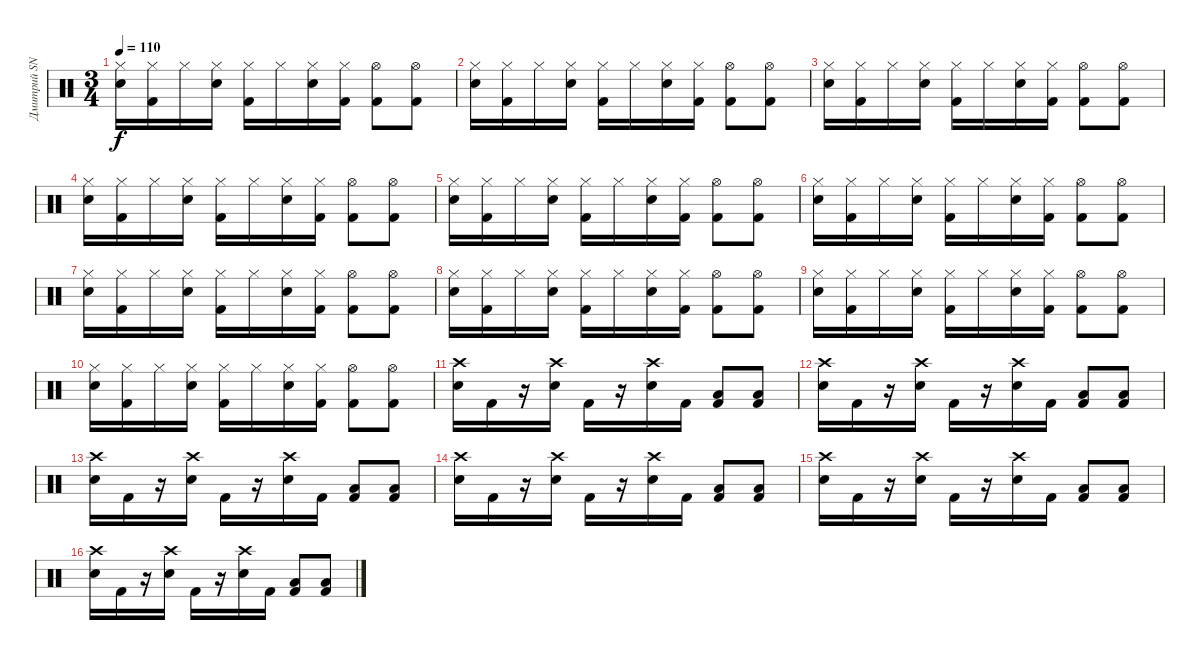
\track ("Дмитрий SNAKE" "Дмитрий SN") {instrument percussion}
\staff {score}
\articulation defaults
\ts (3 4)
\tempo 110
\clef neutral
\ks c
("Hi-Hat (closed)" "Snare (hit) 2").16{dy f} ("Hi-Hat (closed)" "Kick (hit) 2").16 "Hi-Hat (closed)".16 ("Hi-Hat (closed)" "Snare (hit) 2").16 ("Hi-Hat (closed)" "Kick (hit) 2").16 "Hi-Hat (closed)".16 ("Hi-Hat (closed)" "Snare (hit) 2").16 ("Hi-Hat (closed)" "Kick (hit) 2").16 ("Hi-Hat (open)" "Kick (hit) 2").8 ("Hi-Hat (open)" "Kick (hit) 2").8 |
("Hi-Hat (closed)" "Snare (hit) 2").16 ("Hi-Hat (closed)" "Kick (hit) 2").16 "Hi-Hat (closed)".16 ("Hi-Hat (closed)" "Snare (hit) 2").16 ("Hi-Hat (closed)" "Kick (hit) 2").16 "Hi-Hat (closed)".16 ("Hi-Hat (closed)" "Snare (hit) 2").16 ("Hi-Hat (closed)" "Kick (hit) 2").16 ("Hi-Hat (open)" "Kick (hit) 2").8 ("Hi-Hat (open)" "Kick (hit) 2").8 |
("Hi-Hat (closed)" "Snare (hit) 2").16 ("Hi-Hat (closed)" "Kick (hit) 2").16 "Hi-Hat (closed)".16 ("Hi-Hat (closed)" "Snare (hit) 2").16 ("Hi-Hat (closed)" "Kick (hit) 2").16 "Hi-Hat (closed)".16 ("Hi-Hat (closed)" "Snare (hit) 2").16 ("Hi-Hat (closed)" "Kick (hit) 2").16 ("Hi-Hat (open)" "Kick (hit) 2").8 ("Hi-Hat (open)" "Kick (hit) 2").8 |
("Hi-Hat (closed)" "Snare (hit) 2").16 ("Hi-Hat (closed)" "Kick (hit) 2").16 "Hi-Hat (closed)".16 ("Hi-Hat (closed)" "Snare (hit) 2").16 ("Hi-Hat (closed)" "Kick (hit) 2").16 "Hi-Hat (closed)".16 ("Hi-Hat (closed)" "Snare (hit) 2").16 ("Hi-Hat (closed)" "Kick (hit) 2").16 ("Hi-Hat (open)" "Kick (hit) 2").8 ("Hi-Hat (open)" "Kick (hit) 2").8 |
("Hi-Hat (closed)" "Snare (hit) 2").16 ("Hi-Hat (closed)" "Kick (hit) 2").16 "Hi-Hat (closed)".16 ("Hi-Hat (closed)" "Snare (hit) 2").16 ("Hi-Hat (closed)" "Kick (hit) 2").16 "Hi-Hat (closed)".16 ("Hi-Hat (closed)" "Snare (hit) 2").16 ("Hi-Hat (closed)" "Kick (hit) 2").16 ("Hi-Hat (open)" "Kick (hit) 2").8 ("Hi-Hat (open)" "Kick (hit) 2").8 |
("Hi-Hat (closed)" "Snare (hit) 2").16 ("Hi-Hat (closed)" "Kick (hit) 2").16 "Hi-Hat (closed)".16 ("Hi-Hat (closed)" "Snare (hit) 2").16 ("Hi-Hat (closed)" "Kick (hit) 2").16 "Hi-Hat (closed)".16 ("Hi-Hat (closed)" "Snare (hit) 2").16 ("Hi-Hat (closed)" "Kick (hit) 2").16 ("Hi-Hat (open)" "Kick (hit) 2").8 ("Hi-Hat (open)" "Kick (hit) 2").8 |
("Hi-Hat (closed)" "Snare (hit) 2").16 ("Hi-Hat (closed)" "Kick (hit) 2").16 "Hi-Hat (closed)".16 ("Hi-Hat (closed)" "Snare (hit) 2").16 ("Hi-Hat (closed)" "Kick (hit) 2").16 "Hi-Hat (closed)".16 ("Hi-Hat (closed)" "Snare (hit) 2").16 ("Hi-Hat (closed)" "Kick (hit) 2").16 ("Hi-Hat (open)" "Kick (hit) 2").8 ("Hi-Hat (open)" "Kick (hit) 2").8 |
("Hi-Hat (closed)" "Snare (hit) 2").16 ("Hi-Hat (closed)" "Kick (hit) 2").16 "Hi-Hat (closed)".16 ("Hi-Hat (closed)" "Snare (hit) 2").16 ("Hi-Hat (closed)" "Kick (hit) 2").16 "Hi-Hat (closed)".16 ("Hi-Hat (closed)" "Snare (hit) 2").16 ("Hi-Hat (closed)" "Kick (hit) 2").16 ("Hi-Hat (open)" "Kick (hit) 2").8 ("Hi-Hat (open)" "Kick (hit) 2").8 |
("Hi-Hat (closed)" "Snare (hit) 2").16 ("Hi-Hat (closed)" "Kick (hit) 2").16 "Hi-Hat (closed)".16 ("Hi-Hat (closed)" "Snare (hit) 2").16 ("Hi-Hat (closed)" "Kick (hit) 2").16 "Hi-Hat (closed)".16 ("Hi-Hat (closed)" "Snare (hit) 2").16 ("Hi-Hat (closed)" "Kick (hit) 2").16 ("Hi-Hat (open)" "Kick (hit) 2").8 ("Hi-Hat (open)" "Kick (hit) 2").8 |
("Hi-Hat (closed)" "Snare (hit) 2").16 ("Hi-Hat (closed)" "Kick (hit) 2").16 "Hi-Hat (closed)".16 ("Hi-Hat (closed)" "Snare (hit) 2").16 ("Hi-Hat (closed)" "Kick (hit) 2").16 "Hi-Hat (closed)".16 ("Hi-Hat (closed)" "Snare (hit) 2").16 ("Hi-Hat (closed)" "Kick (hit) 2").16 ("Hi-Hat (open)" "Kick (hit) 2").8 ("Hi-Hat (open)" "Kick (hit) 2").8 |
("Crash high (hit)" "Snare (hit) 2").16 "Kick (hit) 2".16 r.16 ("Crash high (hit)" "Snare (hit) 2").16 "Kick (hit) 2".16 r.16 ("Crash high (hit)" "Snare (hit) 2").16 "Kick (hit) 2".16 ("Low Tom (hit)" "Kick (hit) 2").8 ("Low Tom (hit)" "Kick (hit) 2").8 |
("Crash high (hit)" "Snare (hit) 2").16 "Kick (hit) 2".16 r.16 ("Crash high (hit)" "Snare (hit) 2").16 "Kick (hit) 2".16 r.16 ("Crash high (hit)" "Snare (hit) 2").16 "Kick (hit) 2".16 ("Low Tom (hit)" "Kick (hit) 2").8 ("Low Tom (hit)" "Kick (hit) 2").8 |
("Crash high (hit)" "Snare (hit) 2").16 "Kick (hit) 2".16 r.16 ("Crash high (hit)" "Snare (hit) 2").16 "Kick (hit) 2".16 r.16 ("Crash high (hit)" "Snare (hit) 2").16 "Kick (hit) 2".16 ("Low Tom (hit)" "Kick (hit) 2").8 ("Low Tom (hit)" "Kick (hit) 2").8 |
("Crash high (hit)" "Snare (hit) 2").16 "Kick (hit) 2".16 r.16 ("Crash high (hit)" "Snare (hit) 2").16 "Kick (hit) 2".16 r.16 ("Crash high (hit)" "Snare (hit) 2").16 "Kick (hit) 2".16 ("Low Tom (hit)" "Kick (hit) 2").8 ("Low Tom (hit)" "Kick (hit) 2").8 |
("Crash high (hit)" "Snare (hit) 2").16 "Kick (hit) 2".16 r.16 ("Crash high (hit)" "Snare (hit) 2").16 "Kick (hit) 2".16 r.16 ("Crash high (hit)" "Snare (hit) 2").16 "Kick (hit) 2".16 ("Low Tom (hit)" "Kick (hit) 2").8 ("Low Tom (hit)" "Kick (hit) 2").8 |
("Crash high (hit)" "Snare (hit) 2").16 "Kick (hit) 2".16 r.16 ("Crash high (hit)" "Snare (hit) 2").16 "Kick (hit) 2".16 r.16 ("Crash high (hit)" "Snare (hit) 2").16 "Kick (hit) 2".16 ("Low Tom (hit)" "Kick (hit) 2").8 ("Low Tom (hit)" "Kick (hit) 2").8
